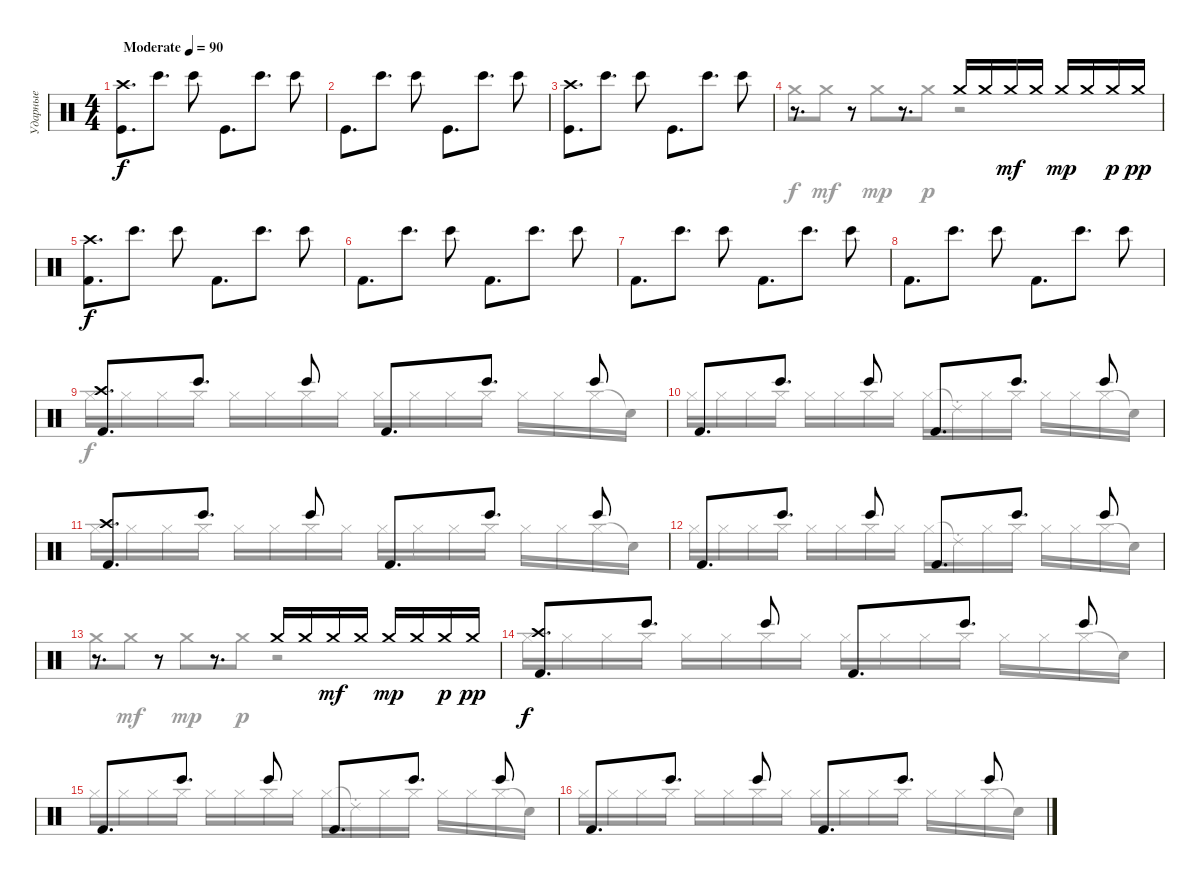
\track ("Ударные" "Ударные") {instrument percussion}
\staff {score}
\articulation defaults
\voice
\ts (4 4)
\tempo (90 "Moderate")
\clef neutral
\ks c
("Kick (hit)" "Crash high (hit)").8{d dy f} "Bongo High (hit)".8{d} "Bongo High (hit)".8 "Kick (hit)".8{d} "Bongo High (hit)".8{d} "Bongo High (hit)".8 |
"Kick (hit)".8{d} "Bongo High (hit)".8{d} "Bongo High (hit)".8 "Kick (hit)".8{d} "Bongo High (hit)".8{d} "Bongo High (hit)".8 |
("Kick (hit)" "Crash high (hit)").8{d} "Bongo High (hit)".8{d} "Bongo High (hit)".8 "Kick (hit)".8{d} "Bongo High (hit)".8{d} "Bongo High (hit)".8 |
r.8{d} r.8 r.8{d} "Crash medium (hit)".16 "Crash medium (hit)".16 "Crash medium (hit)".16{dy mf} "Crash medium (hit)".16 "Crash medium (hit)".16{dy mp} "Crash medium (hit)".16 "Crash medium (hit)".16{dy p} "Crash medium (hit)".16{dy pp} |
("Kick (hit) 2" "Crash high (hit)").8{d dy f} "Bongo High (hit)".8{d} "Bongo High (hit)".8 "Kick (hit) 2".8{d} "Bongo High (hit)".8{d} "Bongo High (hit)".8 |
"Kick (hit) 2".8{d} "Bongo High (hit)".8{d} "Bongo High (hit)".8 "Kick (hit) 2".8{d} "Bongo High (hit)".8{d} "Bongo High (hit)".8 |
"Kick (hit) 2".8{d} "Bongo High (hit)".8{d} "Bongo High (hit)".8 "Kick (hit) 2".8{d} "Bongo High (hit)".8{d} "Bongo High (hit)".8 |
"Kick (hit) 2".8{d} "Bongo High (hit)".8{d} "Bongo High (hit)".8 "Kick (hit) 2".8{d} "Bongo High (hit)".8{d} "Bongo High (hit)".8 |
("Kick (hit) 2" "Crash high (hit)").8{d} "Bongo High (hit)".8{d} "Bongo High (hit)".8 "Kick (hit) 2".8{d} "Bongo High (hit)".8{d} "Bongo High (hit)".8 |
"Kick (hit) 2".8{d} "Bongo High (hit)".8{d} "Bongo High (hit)".8 "Kick (hit) 2".8{d} "Bongo High (hit)".8{d} "Bongo High (hit)".8 |
("Kick (hit) 2" "Crash high (hit)").8{d} "Bongo High (hit)".8{d} "Bongo High (hit)".8 "Kick (hit) 2".8{d} "Bongo High (hit)".8{d} "Bongo High (hit)".8 |
"Kick (hit) 2".8{d} "Bongo High (hit)".8{d} "Bongo High (hit)".8 "Kick (hit) 2".8{d} "Bongo High (hit)".8{d} "Bongo High (hit)".8 |
r.8{d} r.8 r.8{d} "Crash medium (hit)".16 "Crash medium (hit)".16 "Crash medium (hit)".16{dy mf} "Crash medium (hit)".16 "Crash medium (hit)".16{dy mp} "Crash medium (hit)".16 "Crash medium (hit)".16{dy p} "Crash medium (hit)".16{dy pp} |
("Kick (hit) 2" "Crash high (hit)").8{d dy f} "Bongo High (hit)".8{d} "Bongo High (hit)".8 "Kick (hit) 2".8{d} "Bongo High (hit)".8{d} "Bongo High (hit)".8 |
"Kick (hit) 2".8{d} "Bongo High (hit)".8{d} "Bongo High (hit)".8 "Kick (hit) 2".8{d} "Bongo High (hit)".8{d} "Bongo High (hit)".8 |
"Kick (hit) 2".8{d} "Bongo High (hit)".8{d} "Bongo High (hit)".8 "Kick (hit) 2".8{d} "Bongo High (hit)".8{d} "Bongo High (hit)".8
\voice
\clef neutral
\ottava regular
\simile none
\ks c
|
|
|
"Crash medium (hit)".8 "Crash medium (hit)".8{dy mf} "Crash medium (hit)".8{dy mp} "Crash medium (hit)".8{dy p} r.2 |
|
|
|
|
"Hi-Hat (closed)".16{dy f} "Hi-Hat (closed)".16 "Hi-Hat (closed)".16 "Hi-Hat (closed)".16 "Hi-Hat (closed)".16 "Hi-Hat (closed)".16 "Hi-Hat (closed)".16 "Hi-Hat (closed)".16 "Hi-Hat (closed)".16 "Hi-Hat (closed)".16 "Hi-Hat (closed)".16 "Hi-Hat (closed)".16 "Hi-Hat (closed)".16 "Hi-Hat (closed)".16 "Hi-Hat (closed)".16 "Snare (hit)"{t}.16 |
"Hi-Hat (closed)".16 "Hi-Hat (closed)".16 "Hi-Hat (closed)".16 "Hi-Hat (closed)".16 "Hi-Hat (closed)".16 "Hi-Hat (closed)".16 "Hi-Hat (closed)".16 "Hi-Hat (closed)".16 "Hi-Hat (closed)".16 "Ride (choke) 2"{t}.16 "Hi-Hat (closed)".16 "Hi-Hat (closed)".16 "Hi-Hat (closed)".16 "Hi-Hat (closed)".16 "Hi-Hat (closed)".16 "Snare (hit)"{t}.16 |
"Hi-Hat (closed)".16 "Hi-Hat (closed)".16 "Hi-Hat (closed)".16 "Hi-Hat (closed)".16 "Hi-Hat (closed)".16 "Hi-Hat (closed)".16 "Hi-Hat (closed)".16 "Hi-Hat (closed)".16 "Hi-Hat (closed)".16 "Hi-Hat (closed)".16 "Hi-Hat (closed)".16 "Hi-Hat (closed)".16 "Hi-Hat (closed)".16 "Hi-Hat (closed)".16 "Hi-Hat (closed)".16 "Snare (hit)"{t}.16 |
"Hi-Hat (closed)".16 "Hi-Hat (closed)".16 "Hi-Hat (closed)".16 "Hi-Hat (closed)".16 "Hi-Hat (closed)".16 "Hi-Hat (closed)".16 "Hi-Hat (closed)".16 "Hi-Hat (closed)".16 "Hi-Hat (closed)".16 "Ride (choke) 2"{t}.16 "Hi-Hat (closed)".16 "Hi-Hat (closed)".16 "Hi-Hat (closed)".16 "Hi-Hat (closed)".16 "Hi-Hat (closed)".16 "Snare (hit)"{t}.16 |
"Crash medium (hit)".8 "Crash medium (hit)".8{dy mf} "Crash medium (hit)".8{dy mp} "Crash medium (hit)".8{dy p} r.2 |
"Hi-Hat (closed)".16{dy f} "Hi-Hat (closed)".16 "Hi-Hat (closed)".16 "Hi-Hat (closed)".16 "Hi-Hat (closed)".16 "Hi-Hat (closed)".16 "Hi-Hat (closed)".16 "Hi-Hat (closed)".16 "Hi-Hat (closed)".16 "Hi-Hat (closed)".16 "Hi-Hat (closed)".16 "Hi-Hat (closed)".16 "Hi-Hat (closed)".16 "Hi-Hat (closed)".16 "Hi-Hat (closed)".16 "Snare (hit)"{t}.16 |
"Hi-Hat (closed)".16 "Hi-Hat (closed)".16 "Hi-Hat (closed)".16 "Hi-Hat (closed)".16 "Hi-Hat (closed)".16 "Hi-Hat (closed)".16 "Hi-Hat (closed)".16 "Hi-Hat (closed)".16 "Hi-Hat (closed)".16 "Ride (choke) 2"{t}.16 "Hi-Hat (closed)".16 "Hi-Hat (closed)".16 "Hi-Hat (closed)".16 "Hi-Hat (closed)".16 "Hi-Hat (closed)".16 "Snare (hit)"{t}.16 |
"Hi-Hat (closed)".16 "Hi-Hat (closed)".16 "Hi-Hat (closed)".16 "Hi-Hat (closed)".16 "Hi-Hat (closed)".16 "Hi-Hat (closed)".16 "Hi-Hat (closed)".16 "Hi-Hat (closed)".16 "Hi-Hat (closed)".16 "Hi-Hat (closed)".16 "Hi-Hat (closed)".16 "Hi-Hat (closed)".16 "Hi-Hat (closed)".16 "Hi-Hat (closed)".16 "Hi-Hat (closed)".16 "Snare (hit)"{t}.16
